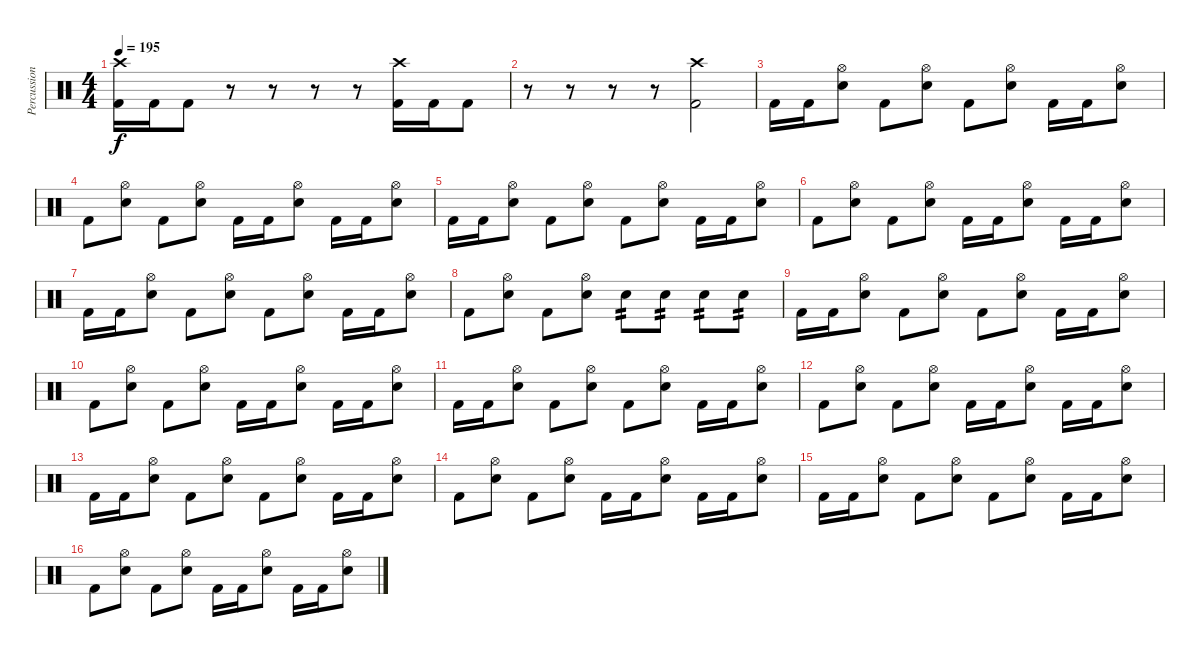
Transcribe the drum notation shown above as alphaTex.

\track ("Percussion" "Percussion") {instrument percussion}
\staff {score}
\articulation defaults
\ts (4 4)
\tempo 195
\clef neutral
\ks c
("Crash high (hit)" "Kick (hit) 2").16{dy f} "Kick (hit) 2".16 "Kick (hit) 2".8 r.8 r.8 r.8 r.8 ("Crash high (hit)" "Kick (hit) 2").16 "Kick (hit) 2".16 "Kick (hit) 2".8 |
r.8 r.8 r.8 r.8 ("Crash high (hit)" "Kick (hit) 2").2 |
"Kick (hit) 2".16 "Kick (hit) 2".16 ("Hi-Hat (open)" "Electric Snare (hit)").8 "Kick (hit) 2".8 ("Hi-Hat (open)" "Electric Snare (hit)").8 "Kick (hit) 2".8 ("Hi-Hat (open)" "Electric Snare (hit)").8 "Kick (hit) 2".16 "Kick (hit) 2".16 ("Hi-Hat (open)" "Electric Snare (hit)").8 |
"Kick (hit) 2".8 ("Hi-Hat (open)" "Electric Snare (hit)").8 "Kick (hit) 2".8 ("Hi-Hat (open)" "Electric Snare (hit)").8 "Kick (hit) 2".16 "Kick (hit) 2".16 ("Hi-Hat (open)" "Electric Snare (hit)").8 "Kick (hit) 2".16 "Kick (hit) 2".16 ("Hi-Hat (open)" "Electric Snare (hit)").8 |
"Kick (hit) 2".16 "Kick (hit) 2".16 ("Hi-Hat (open)" "Electric Snare (hit)").8 "Kick (hit) 2".8 ("Hi-Hat (open)" "Electric Snare (hit)").8 "Kick (hit) 2".8 ("Hi-Hat (open)" "Electric Snare (hit)").8 "Kick (hit) 2".16 "Kick (hit) 2".16 ("Hi-Hat (open)" "Electric Snare (hit)").8 |
"Kick (hit) 2".8 ("Hi-Hat (open)" "Electric Snare (hit)").8 "Kick (hit) 2".8 ("Hi-Hat (open)" "Electric Snare (hit)").8 "Kick (hit) 2".16 "Kick (hit) 2".16 ("Hi-Hat (open)" "Electric Snare (hit)").8 "Kick (hit) 2".16 "Kick (hit) 2".16 ("Hi-Hat (open)" "Electric Snare (hit)").8 |
"Kick (hit) 2".16 "Kick (hit) 2".16 ("Hi-Hat (open)" "Electric Snare (hit)").8 "Kick (hit) 2".8 ("Hi-Hat (open)" "Electric Snare (hit)").8 "Kick (hit) 2".8 ("Hi-Hat (open)" "Electric Snare (hit)").8 "Kick (hit) 2".16 "Kick (hit) 2".16 ("Hi-Hat (open)" "Electric Snare (hit)").8 |
"Kick (hit) 2".8 ("Hi-Hat (open)" "Electric Snare (hit)").8 "Kick (hit) 2".8 ("Hi-Hat (open)" "Electric Snare (hit)").8 "Electric Snare (hit)".8{tp 2} "Electric Snare (hit)".8{tp 2} "Electric Snare (hit)".8{tp 2} "Electric Snare (hit)".8{tp 2} |
"Kick (hit) 2".16 "Kick (hit) 2".16 ("Hi-Hat (open)" "Electric Snare (hit)").8 "Kick (hit) 2".8 ("Hi-Hat (open)" "Electric Snare (hit)").8 "Kick (hit) 2".8 ("Hi-Hat (open)" "Electric Snare (hit)").8 "Kick (hit) 2".16 "Kick (hit) 2".16 ("Hi-Hat (open)" "Electric Snare (hit)").8 |
"Kick (hit) 2".8 ("Hi-Hat (open)" "Electric Snare (hit)").8 "Kick (hit) 2".8 ("Hi-Hat (open)" "Electric Snare (hit)").8 "Kick (hit) 2".16 "Kick (hit) 2".16 ("Hi-Hat (open)" "Electric Snare (hit)").8 "Kick (hit) 2".16 "Kick (hit) 2".16 ("Hi-Hat (open)" "Electric Snare (hit)").8 |
"Kick (hit) 2".16 "Kick (hit) 2".16 ("Hi-Hat (open)" "Electric Snare (hit)").8 "Kick (hit) 2".8 ("Hi-Hat (open)" "Electric Snare (hit)").8 "Kick (hit) 2".8 ("Hi-Hat (open)" "Electric Snare (hit)").8 "Kick (hit) 2".16 "Kick (hit) 2".16 ("Hi-Hat (open)" "Electric Snare (hit)").8 |
"Kick (hit) 2".8 ("Hi-Hat (open)" "Electric Snare (hit)").8 "Kick (hit) 2".8 ("Hi-Hat (open)" "Electric Snare (hit)").8 "Kick (hit) 2".16 "Kick (hit) 2".16 ("Hi-Hat (open)" "Electric Snare (hit)").8 "Kick (hit) 2".16 "Kick (hit) 2".16 ("Hi-Hat (open)" "Electric Snare (hit)").8 |
"Kick (hit) 2".16 "Kick (hit) 2".16 ("Hi-Hat (open)" "Electric Snare (hit)").8 "Kick (hit) 2".8 ("Hi-Hat (open)" "Electric Snare (hit)").8 "Kick (hit) 2".8 ("Hi-Hat (open)" "Electric Snare (hit)").8 "Kick (hit) 2".16 "Kick (hit) 2".16 ("Hi-Hat (open)" "Electric Snare (hit)").8 |
"Kick (hit) 2".8 ("Hi-Hat (open)" "Electric Snare (hit)").8 "Kick (hit) 2".8 ("Hi-Hat (open)" "Electric Snare (hit)").8 "Kick (hit) 2".16 "Kick (hit) 2".16 ("Hi-Hat (open)" "Electric Snare (hit)").8 "Kick (hit) 2".16 "Kick (hit) 2".16 ("Hi-Hat (open)" "Electric Snare (hit)").8 |
"Kick (hit) 2".16 "Kick (hit) 2".16 ("Hi-Hat (open)" "Electric Snare (hit)").8 "Kick (hit) 2".8 ("Hi-Hat (open)" "Electric Snare (hit)").8 "Kick (hit) 2".8 ("Hi-Hat (open)" "Electric Snare (hit)").8 "Kick (hit) 2".16 "Kick (hit) 2".16 ("Hi-Hat (open)" "Electric Snare (hit)").8 |
"Kick (hit) 2".8 ("Hi-Hat (open)" "Electric Snare (hit)").8 "Kick (hit) 2".8 ("Hi-Hat (open)" "Electric Snare (hit)").8 "Kick (hit) 2".16 "Kick (hit) 2".16 ("Hi-Hat (open)" "Electric Snare (hit)").8 "Kick (hit) 2".16 "Kick (hit) 2".16 ("Hi-Hat (open)" "Electric Snare (hit)").8
